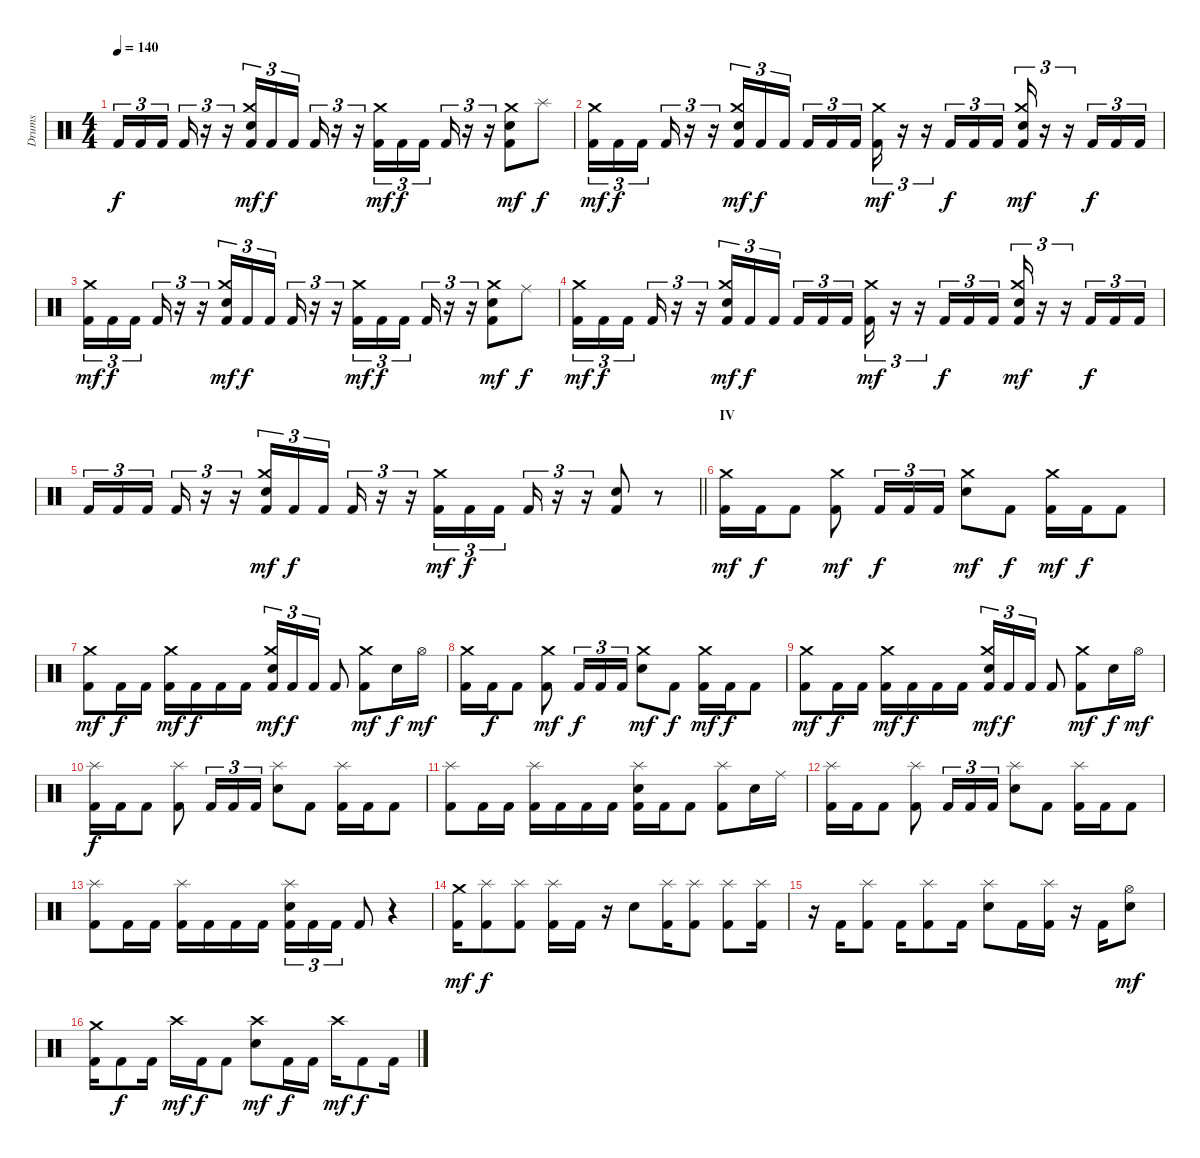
\track ("Drums" "Drums") {instrument percussion}
\staff {score}
\articulation defaults
\ts (4 4)
\tempo 140
\clef neutral
\ks c "Kick (hit) 2".16{tu (3 2) dy f} "Kick (hit) 2".16{tu (3 2)} "Kick (hit) 2".16{tu (3 2) beam splitsecondary} "Kick (hit) 2".16{tu (3 2)}
r.16{tu (3 2)} r.16{tu (3 2)} ("Crash medium (hit)" "Electric Snare (hit)" "Kick (hit) 2").16{tu (3 2) dy mf} "Kick (hit) 2".16{tu (3 2) dy f} "Kick (hit) 2".16{tu (3 2) beam splitsecondary} "Kick (hit) 2".16{tu (3 2)} r.16{tu (3 2)} r.16{tu (3 2)} ("Crash medium (hit)" "Kick (hit) 2").16{tu (3 2) dy mf} "Kick (hit) 2".16{tu (3 2) dy f} "Kick (hit) 2".16{tu (3 2) beam splitsecondary} "Kick (hit) 2".16{tu (3 2)} r.16{tu (3 2)} r.16{tu (3 2)} ("Crash medium (hit)" "Electric Snare (hit)" "Kick (hit) 2").8{dy mf} "Splash (hit)".8{dy f} |
("Crash medium (hit)" "Kick (hit) 2").16{tu (3 2) dy mf} "Kick (hit) 2".16{tu (3 2) dy f} "Kick (hit) 2".16{tu (3 2) beam splitsecondary} "Kick (hit) 2".16{tu (3 2)} r.16{tu (3 2)} r.16{tu (3 2)} ("Crash medium (hit)" "Electric Snare (hit)" "Kick (hit) 2").16{tu (3 2) dy mf} "Kick (hit) 2".16{tu (3 2) dy f} "Kick (hit) 2".16{tu (3 2) beam splitsecondary} "Kick (hit) 2".16{tu (3 2)} "Kick (hit) 2".16{tu (3 2)} "Kick (hit) 2".16{tu (3 2)} ("Crash medium (hit)" "Kick (hit) 2").16{tu (3 2) dy mf} r.16{tu (3 2)} r.16{tu (3 2)} "Kick (hit) 2".16{tu (3 2) dy f} "Kick (hit) 2".16{tu (3 2)} "Kick (hit) 2".16{tu (3 2)} ("Crash medium (hit)" "Electric Snare (hit)" "Kick (hit) 2").16{tu (3 2) dy mf} r.16{tu (3 2)} r.16{tu (3 2)} "Kick (hit) 2".16{tu (3 2) dy f} "Kick (hit) 2".16{tu (3 2)} "Kick (hit) 2".16{tu (3 2)} |
("Crash medium (hit)" "Kick (hit) 2").16{tu (3 2) dy mf} "Kick (hit) 2".16{tu (3 2) dy f} "Kick (hit) 2".16{tu (3 2) beam splitsecondary} "Kick (hit) 2".16{tu (3 2)} r.16{tu (3 2)} r.16{tu (3 2)} ("Crash medium (hit)" "Electric Snare (hit)" "Kick (hit) 2").16{tu (3 2) dy mf} "Kick (hit) 2".16{tu (3 2) dy f} "Kick (hit) 2".16{tu (3 2) beam splitsecondary} "Kick (hit) 2".16{tu (3 2)} r.16{tu (3 2)} r.16{tu (3 2)} ("Crash medium (hit)" "Kick (hit) 2").16{tu (3 2) dy mf} "Kick (hit) 2".16{tu (3 2) dy f} "Kick (hit) 2".16{tu (3 2) beam splitsecondary} "Kick (hit) 2".16{tu (3 2)} r.16{tu (3 2)} r.16{tu (3 2)} ("Crash medium (hit)" "Electric Snare (hit)" "Kick (hit) 2").8{dy mf} "Ride (middle)".8{dy f} |
("Crash medium (hit)" "Kick (hit) 2").16{tu (3 2) dy mf} "Kick (hit) 2".16{tu (3 2) dy f} "Kick (hit) 2".16{tu (3 2) beam splitsecondary} "Kick (hit) 2".16{tu (3 2)} r.16{tu (3 2)} r.16{tu (3 2)} ("Crash medium (hit)" "Electric Snare (hit)" "Kick (hit) 2").16{tu (3 2) dy mf} "Kick (hit) 2".16{tu (3 2) dy f} "Kick (hit) 2".16{tu (3 2) beam splitsecondary} "Kick (hit) 2".16{tu (3 2)} "Kick (hit) 2".16{tu (3 2)} "Kick (hit) 2".16{tu (3 2)} ("Crash medium (hit)" "Kick (hit) 2").16{tu (3 2) dy mf} r.16{tu (3 2)} r.16{tu (3 2)} "Kick (hit) 2".16{tu (3 2) dy f} "Kick (hit) 2".16{tu (3 2)} "Kick (hit) 2".16{tu (3 2)} ("Crash medium (hit)" "Electric Snare (hit)" "Kick (hit) 2").16{tu (3 2) dy mf} r.16{tu (3 2)} r.16{tu (3 2)} "Kick (hit) 2".16{tu (3 2) dy f} "Kick (hit) 2".16{tu (3 2)} "Kick (hit) 2".16{tu (3 2)} |
\barLineRight lightlight "Kick (hit) 2".16{tu (3 2)} "Kick (hit) 2".16{tu (3 2)} "Kick (hit) 2".16{tu (3 2) beam splitsecondary} "Kick (hit) 2".16{tu (3 2)}
r.16{tu (3 2)} r.16{tu (3 2)} ("Crash medium (hit)" "Electric Snare (hit)" "Kick (hit) 2").16{tu (3 2) dy mf} "Kick (hit) 2".16{tu (3 2) dy f} "Kick (hit) 2".16{tu (3 2) beam splitsecondary} "Kick (hit) 2".16{tu (3 2)} r.16{tu (3 2)} r.16{tu (3 2)} ("Crash medium (hit)" "Kick (hit) 2").16{tu (3 2) dy mf} "Kick (hit) 2".16{tu (3 2) dy f} "Kick (hit) 2".16{tu (3 2) beam splitsecondary} "Kick (hit) 2".16{tu (3 2)} r.16{tu (3 2)} r.16{tu (3 2)} ("Electric Snare (hit)" "Kick (hit) 2").8 r.8 |
\section ("" "IV")
("Crash medium (hit)" "Kick (hit) 2").16{dy mf} "Kick (hit) 2".16{dy f} "Kick (hit) 2".8 ("Crash medium (hit)" "Kick (hit) 2").8{dy mf} "Kick (hit) 2".16{tu (3 2) dy f} "Kick (hit) 2".16{tu (3 2)} "Kick (hit) 2".16{tu (3 2)} ("Crash medium (hit)" "Electric Snare (hit)").8{dy mf} "Kick (hit) 2".8{dy f} ("Crash medium (hit)" "Kick (hit) 2").16{dy mf} "Kick (hit) 2".16{dy f} "Kick (hit) 2".8 |
("Crash medium (hit)" "Kick (hit) 2").8{dy mf} "Kick (hit) 2".16{dy f} "Kick (hit) 2".16 ("Crash medium (hit)" "Kick (hit) 2").16{dy mf} "Kick (hit) 2".16{dy f} "Kick (hit) 2".16 "Kick (hit) 2".16 ("Crash medium (hit)" "Electric Snare (hit)" "Kick (hit) 2").16{tu (3 2) dy mf} "Kick (hit) 2".16{tu (3 2) dy f} "Kick (hit) 2".16{tu (3 2)} "Kick (hit) 2".8 ("Crash medium (hit)" "Kick (hit) 2").8{dy mf} "Electric Snare (hit)".16{dy f} "Hi-Hat (open)".16{dy mf} |
("Crash medium (hit)" "Kick (hit) 2").16 "Kick (hit) 2".16{dy f} "Kick (hit) 2".8 ("Crash medium (hit)" "Kick (hit) 2").8{dy mf} "Kick (hit) 2".16{tu (3 2) dy f} "Kick (hit) 2".16{tu (3 2)} "Kick (hit) 2".16{tu (3 2)} ("Crash medium (hit)" "Electric Snare (hit)").8{dy mf} "Kick (hit) 2".8{dy f} ("Crash medium (hit)" "Kick (hit) 2").16{dy mf} "Kick (hit) 2".16{dy f} "Kick (hit) 2".8 |
("Crash medium (hit)" "Kick (hit) 2").8{dy mf} "Kick (hit) 2".16{dy f} "Kick (hit) 2".16 ("Crash medium (hit)" "Kick (hit) 2").16{dy mf} "Kick (hit) 2".16{dy f} "Kick (hit) 2".16 "Kick (hit) 2".16 ("Crash medium (hit)" "Electric Snare (hit)" "Kick (hit) 2").16{tu (3 2) dy mf} "Kick (hit) 2".16{tu (3 2) dy f} "Kick (hit) 2".16{tu (3 2)} "Kick (hit) 2".8 ("Crash medium (hit)" "Kick (hit) 2").8{dy mf} "Electric Snare (hit)".16{dy f} "Hi-Hat (open)".16{dy mf} |
("Splash (hit)" "Kick (hit) 2").16{dy f} "Kick (hit) 2".16 "Kick (hit) 2".8 ("Splash (hit)" "Kick (hit) 2").8 "Kick (hit) 2".16{tu (3 2)} "Kick (hit) 2".16{tu (3 2)} "Kick (hit) 2".16{tu (3 2)} ("Splash (hit)" "Electric Snare (hit)").8 "Kick (hit) 2".8 ("Splash (hit)" "Kick (hit) 2").16 "Kick (hit) 2".16 "Kick (hit) 2".8 |
("Splash (hit)" "Kick (hit) 2").8 "Kick (hit) 2".16 "Kick (hit) 2".16 ("Splash (hit)" "Kick (hit) 2").16 "Kick (hit) 2".16 "Kick (hit) 2".16 "Kick (hit) 2".16 ("Splash (hit)" "Electric Snare (hit)" "Kick (hit) 2").16 "Kick (hit) 2".16 "Kick (hit) 2".8 ("Splash (hit)" "Kick (hit) 2").8 "Electric Snare (hit)".16 "Ride (middle)".16 |
("Splash (hit)" "Kick (hit) 2").16 "Kick (hit) 2".16 "Kick (hit) 2".8 ("Splash (hit)" "Kick (hit) 2").8 "Kick (hit) 2".16{tu (3 2)} "Kick (hit) 2".16{tu (3 2)} "Kick (hit) 2".16{tu (3 2)} ("Splash (hit)" "Electric Snare (hit)").8 "Kick (hit) 2".8 ("Splash (hit)" "Kick (hit) 2").16 "Kick (hit) 2".16 "Kick (hit) 2".8 |
("Splash (hit)" "Kick (hit) 2").8 "Kick (hit) 2".16 "Kick (hit) 2".16 ("Splash (hit)" "Kick (hit) 2").16 "Kick (hit) 2".16 "Kick (hit) 2".16 "Kick (hit) 2".16 ("Splash (hit)" "Electric Snare (hit)" "Kick (hit) 2").16{tu (3 2)} "Kick (hit) 2".16{tu (3 2)} "Kick (hit) 2".16{tu (3 2)} "Kick (hit) 2".8 r.4 |
("Crash medium (hit)" "Kick (hit) 2").16{dy mf} ("Splash (hit)" "Kick (hit) 2").8{dy f} ("Splash (hit)" "Kick (hit) 2").8 ("Splash (hit)" "Kick (hit) 2").16 "Kick (hit) 2".16 r.16 "Electric Snare (hit)".8 ("Splash (hit)" "Kick (hit) 2").16 ("Splash (hit)" "Kick (hit) 2").8 ("Splash (hit)" "Kick (hit) 2").8 ("Splash (hit)" "Kick (hit) 2").16 |
r.16 "Kick (hit) 2".16 ("Splash (hit)" "Kick (hit) 2").8 "Kick (hit) 2".16 ("Splash (hit)" "Kick (hit) 2").8 "Kick (hit) 2".16 ("Splash (hit)" "Electric Snare (hit)").8 "Kick (hit) 2".16 ("Splash (hit)" "Kick (hit) 2").16 r.16 "Kick (hit) 2".16 ("Hi-Hat (open)" "Electric Snare (hit)").8{dy mf} |
("Crash medium (hit)" "Kick (hit) 2").16 "Kick (hit) 2".8{dy f} "Kick (hit) 2".16 "Crash high (hit)".16{dy mf} "Kick (hit) 2".16{dy f} "Kick (hit) 2".8 ("Crash high (hit)" "Electric Snare (hit)").8{dy mf} "Kick (hit) 2".16{dy f} "Kick (hit) 2".16 "Crash high (hit)".16{dy mf} "Kick (hit) 2".8{dy f} "Kick (hit) 2".16
